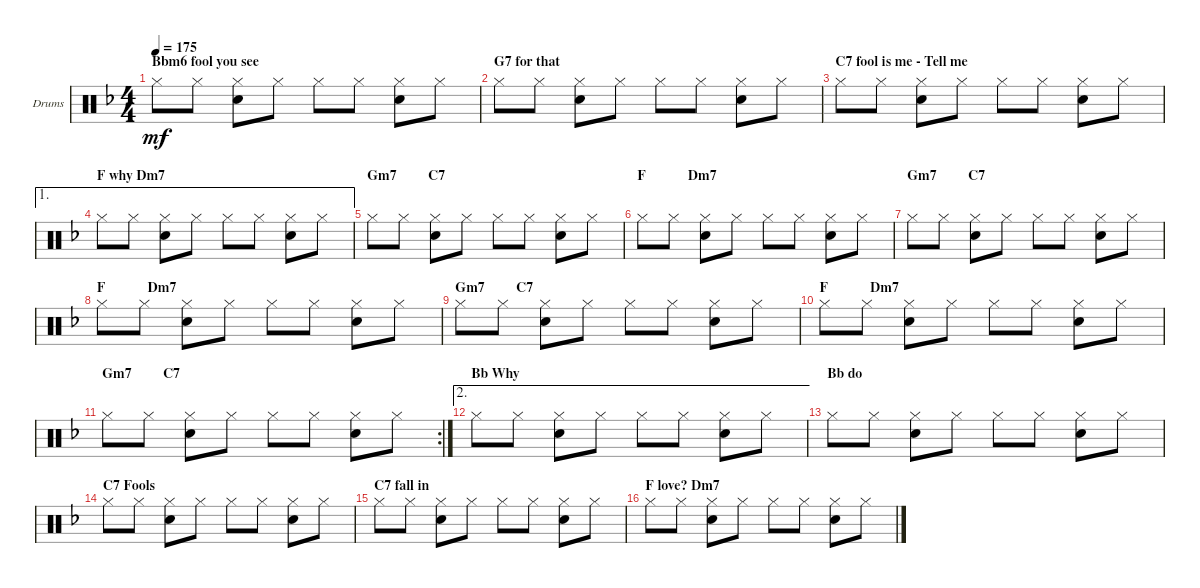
\bracketExtendMode groupsimilarinstruments
\firstSystemTrackNameOrientation horizontal
\otherSystemsTrackNameOrientation horizontal
\track ("Drumkit" "Drums") {instrument percussion}
\staff {score}
\articulation defaults
\ts (4 4)
\section ("" "Bbm6 fool you see")
\tempo 175
\clef neutral
\ks f "Hi-Hat (closed)".8{dy mf} "Hi-Hat (closed)".8
("Snare (hit) 2" "Hi-Hat (closed)").8 "Hi-Hat (closed)".8 "Hi-Hat (closed)".8 "Hi-Hat (closed)".8 ("Snare (hit) 2" "Hi-Hat (closed)").8 "Hi-Hat (closed)".8 |
\section ("" "G7 for that")
"Hi-Hat (closed)".8 "Hi-Hat (closed)".8 ("Snare (hit) 2" "Hi-Hat (closed)").8 "Hi-Hat (closed)".8 "Hi-Hat (closed)".8 "Hi-Hat (closed)".8 ("Snare (hit) 2" "Hi-Hat (closed)").8 "Hi-Hat (closed)".8 |
\section ("" "C7 fool is me - Tell me")
"Hi-Hat (closed)".8 "Hi-Hat (closed)".8 ("Snare (hit) 2" "Hi-Hat (closed)").8 "Hi-Hat (closed)".8 "Hi-Hat (closed)".8 "Hi-Hat (closed)".8 ("Snare (hit) 2" "Hi-Hat (closed)").8 "Hi-Hat (closed)".8 |
\ae 1
\section ("" "F why Dm7")
"Hi-Hat (closed)".8 "Hi-Hat (closed)".8 ("Snare (hit) 2" "Hi-Hat (closed)").8 "Hi-Hat (closed)".8 "Hi-Hat (closed)".8 "Hi-Hat (closed)".8 ("Snare (hit) 2" "Hi-Hat (closed)").8 "Hi-Hat (closed)".8 |
\section ("" "Gm7         C7")
"Hi-Hat (closed)".8 "Hi-Hat (closed)".8 ("Snare (hit) 2" "Hi-Hat (closed)").8 "Hi-Hat (closed)".8 "Hi-Hat (closed)".8 "Hi-Hat (closed)".8 ("Snare (hit) 2" "Hi-Hat (closed)").8 "Hi-Hat (closed)".8 |
\section ("" "F            Dm7")
"Hi-Hat (closed)".8 "Hi-Hat (closed)".8 ("Snare (hit) 2" "Hi-Hat (closed)").8 "Hi-Hat (closed)".8 "Hi-Hat (closed)".8 "Hi-Hat (closed)".8 ("Snare (hit) 2" "Hi-Hat (closed)").8 "Hi-Hat (closed)".8 |
\section ("" "Gm7         C7")
"Hi-Hat (closed)".8 "Hi-Hat (closed)".8 ("Snare (hit) 2" "Hi-Hat (closed)").8 "Hi-Hat (closed)".8 "Hi-Hat (closed)".8 "Hi-Hat (closed)".8 ("Snare (hit) 2" "Hi-Hat (closed)").8 "Hi-Hat (closed)".8 |
\section ("" "F            Dm7")
"Hi-Hat (closed)".8 "Hi-Hat (closed)".8 ("Snare (hit) 2" "Hi-Hat (closed)").8 "Hi-Hat (closed)".8 "Hi-Hat (closed)".8 "Hi-Hat (closed)".8 ("Snare (hit) 2" "Hi-Hat (closed)").8 "Hi-Hat (closed)".8 |
\section ("" "Gm7         C7")
"Hi-Hat (closed)".8 "Hi-Hat (closed)".8 ("Snare (hit) 2" "Hi-Hat (closed)").8 "Hi-Hat (closed)".8 "Hi-Hat (closed)".8 "Hi-Hat (closed)".8 ("Snare (hit) 2" "Hi-Hat (closed)").8 "Hi-Hat (closed)".8 |
\section ("" "F            Dm7")
"Hi-Hat (closed)".8 "Hi-Hat (closed)".8 ("Snare (hit) 2" "Hi-Hat (closed)").8 "Hi-Hat (closed)".8 "Hi-Hat (closed)".8 "Hi-Hat (closed)".8 ("Snare (hit) 2" "Hi-Hat (closed)").8 "Hi-Hat (closed)".8 |
\rc 2
\section ("" "Gm7         C7")
"Hi-Hat (closed)".8 "Hi-Hat (closed)".8 ("Snare (hit) 2" "Hi-Hat (closed)").8 "Hi-Hat (closed)".8 "Hi-Hat (closed)".8 "Hi-Hat (closed)".8 ("Snare (hit) 2" "Hi-Hat (closed)").8 "Hi-Hat (closed)".8 |
\ae 2
\section ("" "Bb Why")
"Hi-Hat (closed)".8 "Hi-Hat (closed)".8 ("Snare (hit) 2" "Hi-Hat (closed)").8 "Hi-Hat (closed)".8 "Hi-Hat (closed)".8 "Hi-Hat (closed)".8 ("Snare (hit) 2" "Hi-Hat (closed)").8 "Hi-Hat (closed)".8 |
\section ("" "Bb do")
"Hi-Hat (closed)".8 "Hi-Hat (closed)".8 ("Snare (hit) 2" "Hi-Hat (closed)").8 "Hi-Hat (closed)".8 "Hi-Hat (closed)".8 "Hi-Hat (closed)".8 ("Snare (hit) 2" "Hi-Hat (closed)").8 "Hi-Hat (closed)".8 |
\section ("" "C7 Fools")
"Hi-Hat (closed)".8 "Hi-Hat (closed)".8 ("Snare (hit) 2" "Hi-Hat (closed)").8 "Hi-Hat (closed)".8 "Hi-Hat (closed)".8 "Hi-Hat (closed)".8 ("Snare (hit) 2" "Hi-Hat (closed)").8 "Hi-Hat (closed)".8 |
\section ("" "C7 fall in")
"Hi-Hat (closed)".8 "Hi-Hat (closed)".8 ("Snare (hit) 2" "Hi-Hat (closed)").8 "Hi-Hat (closed)".8 "Hi-Hat (closed)".8 "Hi-Hat (closed)".8 ("Snare (hit) 2" "Hi-Hat (closed)").8 "Hi-Hat (closed)".8 |
\section ("" "F love? Dm7")
"Hi-Hat (closed)".8 "Hi-Hat (closed)".8 ("Snare (hit) 2" "Hi-Hat (closed)").8 "Hi-Hat (closed)".8 "Hi-Hat (closed)".8 "Hi-Hat (closed)".8 ("Snare (hit) 2" "Hi-Hat (closed)").8 "Hi-Hat (closed)".8
